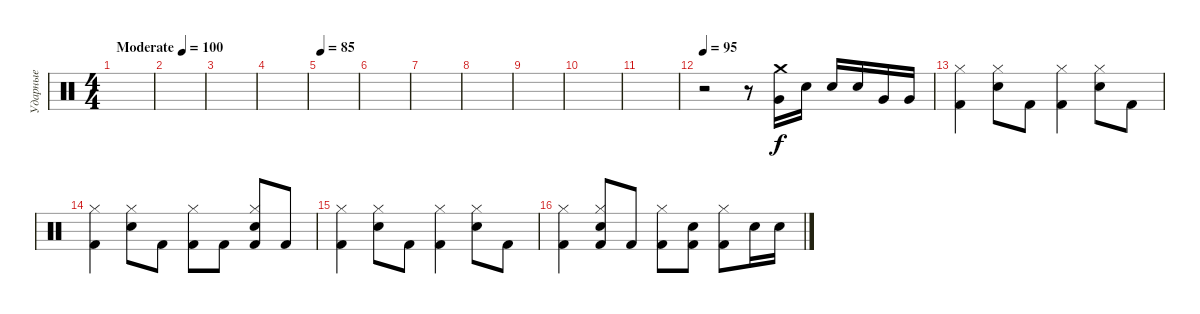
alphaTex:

\track ("Ударные" "Ударные") {instrument percussion}
\staff {score}
\articulation defaults
\ts (4 4)
\tempo (100 "Moderate")
\tempo 85
\tempo (100 "Moderate")
\clef neutral
\ks c
|
|
|
|
\tempo 85
|
|
|
|
|
|
|
\tempo 95
r.2 r.8 ("Crash medium (hit)" "Very Low Tom (hit)").16 "Snare (hit) 2".16 "Snare (hit) 2".16 "Snare (hit) 2".16 "Very Low Tom (hit)".16 "Very Low Tom (hit)".16 |
("Hi-Hat (closed)" "Kick (hit) 2").4 ("Hi-Hat (closed)" "Snare (hit) 2").8 "Kick (hit) 2".8 ("Hi-Hat (closed)" "Kick (hit) 2").4 ("Hi-Hat (closed)" "Snare (hit) 2").8 "Kick (hit) 2".8 |
("Hi-Hat (closed)" "Kick (hit) 2").4 ("Hi-Hat (closed)" "Snare (hit) 2").8 "Kick (hit) 2".8 ("Hi-Hat (closed)" "Kick (hit) 2").8 "Kick (hit) 2".8 ("Hi-Hat (closed)" "Snare (hit) 2" "Kick (hit) 2").8 "Kick (hit) 2".8 |
("Hi-Hat (closed)" "Kick (hit) 2").4 ("Hi-Hat (closed)" "Snare (hit) 2").8 "Kick (hit) 2".8 ("Hi-Hat (closed)" "Kick (hit) 2").4 ("Hi-Hat (closed)" "Snare (hit) 2").8 "Kick (hit) 2".8 |
("Hi-Hat (closed)" "Kick (hit) 2").4 ("Hi-Hat (closed)" "Snare (hit) 2" "Kick (hit) 2").8 "Kick (hit) 2".8 ("Hi-Hat (closed)" "Kick (hit) 2").8 ("Snare (hit) 2" "Kick (hit) 2").8 ("Hi-Hat (closed)" "Kick (hit) 2").8 "Snare (hit) 2".16 "Snare (hit) 2".16
